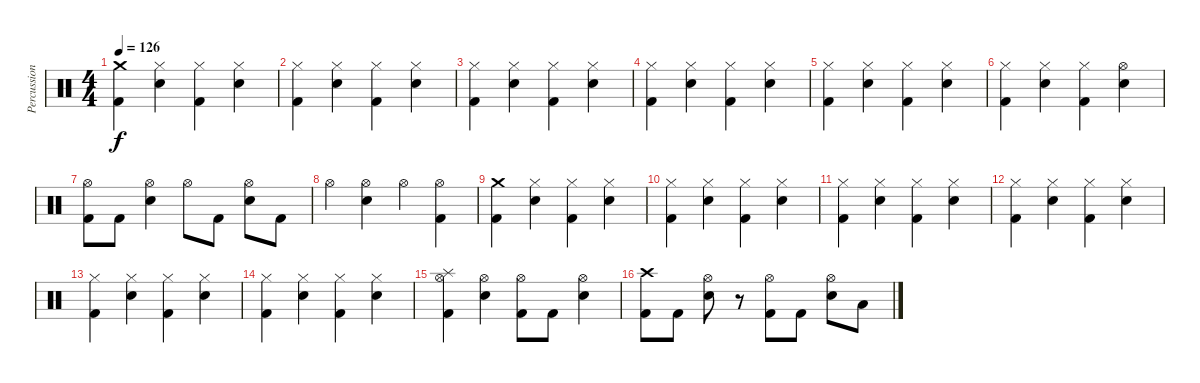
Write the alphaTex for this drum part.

\track ("Percussion" "Percussion") {instrument percussion}
\staff {score}
\articulation defaults
\ts (4 4)
\tempo 126
\clef neutral
\ks c
("Kick (hit) 2" "Crash medium (hit)").4{dy f} ("Hi-Hat (closed)" "Electric Snare (hit)").4 ("Hi-Hat (closed)" "Kick (hit) 2").4 ("Hi-Hat (closed)" "Electric Snare (hit)").4 |
("Hi-Hat (closed)" "Kick (hit) 2").4 ("Hi-Hat (closed)" "Electric Snare (hit)").4 ("Hi-Hat (closed)" "Kick (hit) 2").4 ("Hi-Hat (closed)" "Electric Snare (hit)").4 |
("Hi-Hat (closed)" "Kick (hit) 2").4 ("Hi-Hat (closed)" "Electric Snare (hit)").4 ("Hi-Hat (closed)" "Kick (hit) 2").4 ("Hi-Hat (closed)" "Electric Snare (hit)").4 |
("Hi-Hat (closed)" "Kick (hit) 2").4 ("Hi-Hat (closed)" "Electric Snare (hit)").4 ("Hi-Hat (closed)" "Kick (hit) 2").4 ("Hi-Hat (closed)" "Electric Snare (hit)").4 |
("Hi-Hat (closed)" "Kick (hit) 2").4 ("Hi-Hat (closed)" "Electric Snare (hit)").4 ("Hi-Hat (closed)" "Kick (hit) 2").4 ("Hi-Hat (closed)" "Electric Snare (hit)").4 |
("Hi-Hat (closed)" "Kick (hit) 2").4 ("Hi-Hat (closed)" "Electric Snare (hit)").4 ("Hi-Hat (closed)" "Kick (hit) 2").4 ("Hi-Hat (open)" "Electric Snare (hit)").4 |
("Hi-Hat (open)" "Kick (hit) 2").8 "Kick (hit) 2".8 ("Electric Snare (hit)" "Hi-Hat (open)").4 "Hi-Hat (open)".8 "Kick (hit) 2".8 ("Electric Snare (hit)" "Hi-Hat (open)").8 "Kick (hit) 2".8 |
"Hi-Hat (open)".4 ("Electric Snare (hit)" "Hi-Hat (open)").4 "Hi-Hat (open)".4 ("Hi-Hat (open)" "Kick (hit) 2").4 |
("Kick (hit) 2" "Crash medium (hit)").4 ("Hi-Hat (closed)" "Electric Snare (hit)").4 ("Hi-Hat (closed)" "Kick (hit) 2").4 ("Hi-Hat (closed)" "Electric Snare (hit)").4 |
("Hi-Hat (closed)" "Kick (hit) 2").4 ("Hi-Hat (closed)" "Electric Snare (hit)").4 ("Hi-Hat (closed)" "Kick (hit) 2").4 ("Hi-Hat (closed)" "Electric Snare (hit)").4 |
("Hi-Hat (closed)" "Kick (hit) 2").4 ("Hi-Hat (closed)" "Electric Snare (hit)").4 ("Hi-Hat (closed)" "Kick (hit) 2").4 ("Hi-Hat (closed)" "Electric Snare (hit)").4 |
("Hi-Hat (closed)" "Kick (hit) 2").4 ("Hi-Hat (closed)" "Electric Snare (hit)").4 ("Hi-Hat (closed)" "Kick (hit) 2").4 ("Hi-Hat (closed)" "Electric Snare (hit)").4 |
("Hi-Hat (closed)" "Kick (hit) 2").4 ("Hi-Hat (closed)" "Electric Snare (hit)").4 ("Hi-Hat (closed)" "Kick (hit) 2").4 ("Hi-Hat (closed)" "Electric Snare (hit)").4 |
("Hi-Hat (closed)" "Kick (hit) 2").4 ("Hi-Hat (closed)" "Electric Snare (hit)").4 ("Hi-Hat (closed)" "Kick (hit) 2").4 ("Hi-Hat (closed)" "Electric Snare (hit)").4 |
("Splash (hit)" "Hi-Hat (open)" "Kick (hit) 2").4 ("Hi-Hat (open)" "Electric Snare (hit)").4 ("Hi-Hat (open)" "Kick (hit) 2").8 "Kick (hit) 2".8 ("Hi-Hat (open)" "Electric Snare (hit)").4 |
("Crash high (hit)" "Kick (hit) 2").8 "Kick (hit) 2".8 ("Hi-Hat (open)" "Electric Snare (hit)").8 r.8 ("Hi-Hat (open)" "Kick (hit) 2").8 "Kick (hit) 2".8 ("Hi-Hat (open)" "Electric Snare (hit)").8 "Low Tom (hit)".8
